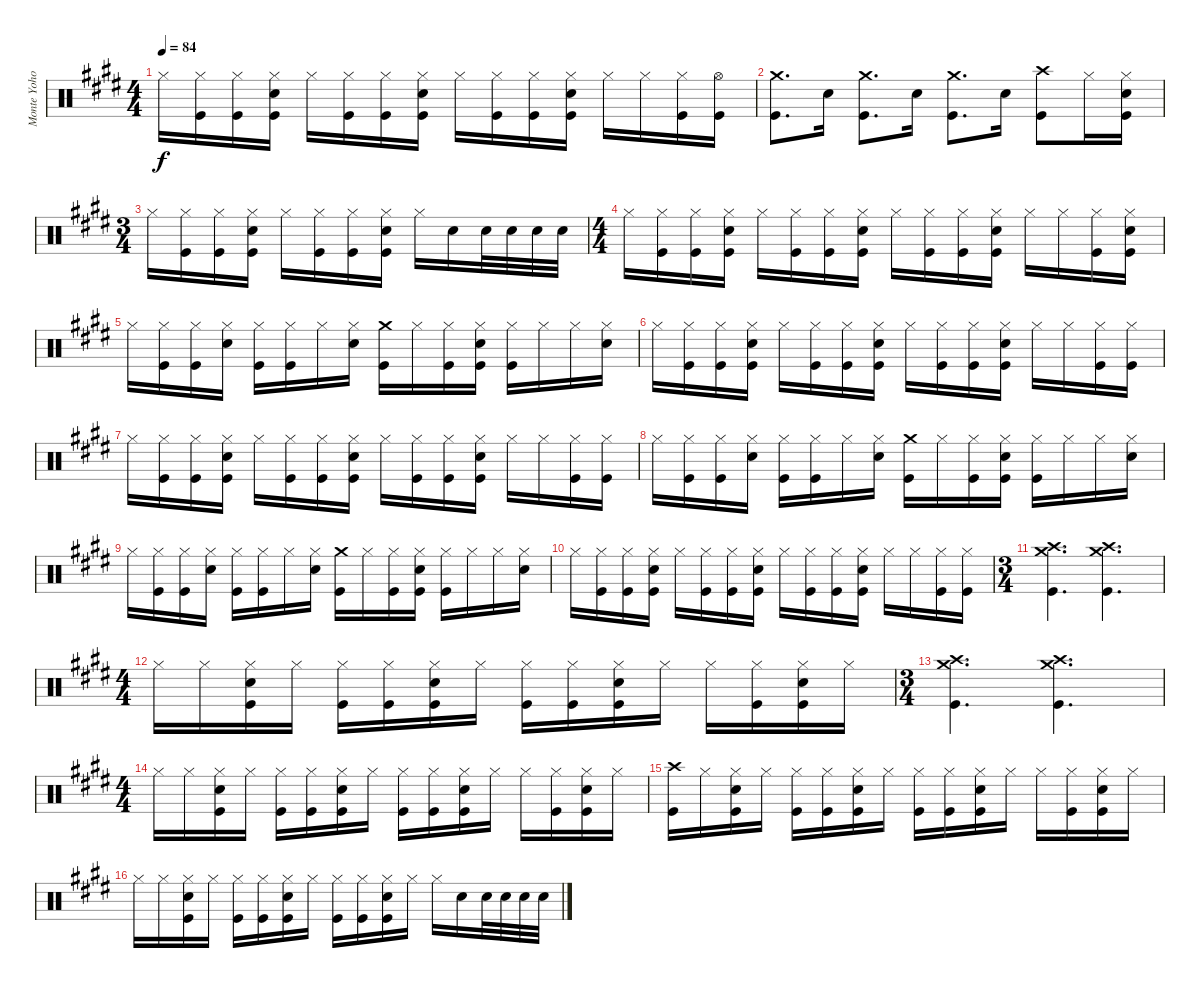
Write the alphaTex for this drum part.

\track ("Monte Yoho Drums" "Monte Yoho") {instrument percussion}
\staff {score}
\articulation defaults
\ts (4 4)
\tempo 84
\clef neutral
\ks e "Hi-Hat (closed)".16{dy f}
("Hi-Hat (closed)" "Kick (hit)").16 ("Hi-Hat (closed)" "Kick (hit)").16 ("Hi-Hat (closed)" "Snare (hit) 2" "Kick (hit)").16 "Hi-Hat (closed)".16 ("Hi-Hat (closed)" "Kick (hit)").16 ("Hi-Hat (closed)" "Kick (hit)").16 ("Hi-Hat (closed)" "Snare (hit) 2" "Kick (hit)").16 "Hi-Hat (closed)".16 ("Hi-Hat (closed)" "Kick (hit)").16 ("Hi-Hat (closed)" "Kick (hit)").16 ("Hi-Hat (closed)" "Snare (hit) 2" "Kick (hit)").16 "Hi-Hat (closed)".16 "Hi-Hat (closed)".16 ("Hi-Hat (closed)" "Kick (hit)").16 ("Hi-Hat (open)" "Kick (hit)").16 |
("Crash medium (hit)" "Kick (hit)").8{d} "Snare (hit) 2".16 ("Crash medium (hit)" "Kick (hit)").8{d} "Snare (hit) 2".16 ("Crash medium (hit)" "Kick (hit)").8{d} "Snare (hit) 2".16 ("Crash high (hit)" "Kick (hit)").8 "Hi-Hat (closed)".16 ("Hi-Hat (closed)" "Snare (hit) 2" "Kick (hit)").16 |
\ts (3 4)
"Hi-Hat (closed)".16 ("Hi-Hat (closed)" "Kick (hit)").16 ("Hi-Hat (closed)" "Kick (hit)").16 ("Hi-Hat (closed)" "Snare (hit) 2" "Kick (hit)").16 "Hi-Hat (closed)".16 ("Hi-Hat (closed)" "Kick (hit)").16 ("Hi-Hat (closed)" "Kick (hit)").16 ("Hi-Hat (closed)" "Snare (hit) 2" "Kick (hit)").16 "Hi-Hat (closed)".16 "Snare (hit) 2".16 "Snare (hit) 2".32 "Snare (hit) 2".32 "Snare (hit) 2".32 "Snare (hit) 2".32 |
\ts (4 4)
"Hi-Hat (closed)".16 ("Hi-Hat (closed)" "Kick (hit)").16 ("Hi-Hat (closed)" "Kick (hit)").16 ("Hi-Hat (closed)" "Snare (hit) 2" "Kick (hit)").16 "Hi-Hat (closed)".16 ("Hi-Hat (closed)" "Kick (hit)").16 ("Hi-Hat (closed)" "Kick (hit)").16 ("Hi-Hat (closed)" "Snare (hit) 2" "Kick (hit)").16 "Hi-Hat (closed)".16 ("Hi-Hat (closed)" "Kick (hit)").16 ("Hi-Hat (closed)" "Kick (hit)").16 ("Hi-Hat (closed)" "Snare (hit) 2" "Kick (hit)").16 "Hi-Hat (closed)".16 "Hi-Hat (closed)".16 ("Hi-Hat (closed)" "Kick (hit)").16 ("Hi-Hat (closed)" "Snare (hit) 2" "Kick (hit)").16 |
"Hi-Hat (closed)".16 ("Hi-Hat (closed)" "Kick (hit)").16 ("Hi-Hat (closed)" "Kick (hit)").16 ("Hi-Hat (closed)" "Snare (hit) 2").16 ("Hi-Hat (closed)" "Kick (hit)").16 ("Hi-Hat (closed)" "Kick (hit)").16 "Hi-Hat (closed)".16 ("Hi-Hat (closed)" "Snare (hit) 2").16 ("Crash medium (hit)" "Kick (hit)").16 "Hi-Hat (closed)".16 ("Hi-Hat (closed)" "Kick (hit)").16 ("Hi-Hat (closed)" "Snare (hit) 2" "Kick (hit)").16 ("Hi-Hat (closed)" "Kick (hit)").16 "Hi-Hat (closed)".16 "Hi-Hat (closed)".16 ("Hi-Hat (closed)" "Snare (hit) 2").16 |
"Hi-Hat (closed)".16 ("Hi-Hat (closed)" "Kick (hit)").16 ("Hi-Hat (closed)" "Kick (hit)").16 ("Hi-Hat (closed)" "Snare (hit) 2" "Kick (hit)").16 "Hi-Hat (closed)".16 ("Hi-Hat (closed)" "Kick (hit)").16 ("Hi-Hat (closed)" "Kick (hit)").16 ("Hi-Hat (closed)" "Snare (hit) 2" "Kick (hit)").16 "Hi-Hat (closed)".16 ("Hi-Hat (closed)" "Kick (hit)").16 ("Hi-Hat (closed)" "Kick (hit)").16 ("Hi-Hat (closed)" "Snare (hit) 2" "Kick (hit)").16 "Hi-Hat (closed)".16 "Hi-Hat (closed)".16 ("Hi-Hat (closed)" "Kick (hit)").16 ("Hi-Hat (closed)" "Kick (hit)").16 |
"Hi-Hat (closed)".16 ("Hi-Hat (closed)" "Kick (hit)").16 ("Hi-Hat (closed)" "Kick (hit)").16 ("Hi-Hat (closed)" "Snare (hit) 2" "Kick (hit)").16 "Hi-Hat (closed)".16 ("Hi-Hat (closed)" "Kick (hit)").16 ("Hi-Hat (closed)" "Kick (hit)").16 ("Hi-Hat (closed)" "Snare (hit) 2" "Kick (hit)").16 "Hi-Hat (closed)".16 ("Hi-Hat (closed)" "Kick (hit)").16 ("Hi-Hat (closed)" "Kick (hit)").16 ("Hi-Hat (closed)" "Snare (hit) 2" "Kick (hit)").16 "Hi-Hat (closed)".16 "Hi-Hat (closed)".16 ("Hi-Hat (closed)" "Kick (hit)").16 ("Hi-Hat (closed)" "Kick (hit)").16 |
"Hi-Hat (closed)".16 ("Hi-Hat (closed)" "Kick (hit)").16 ("Hi-Hat (closed)" "Kick (hit)").16 ("Hi-Hat (closed)" "Snare (hit) 2").16 ("Hi-Hat (closed)" "Kick (hit)").16 ("Hi-Hat (closed)" "Kick (hit)").16 "Hi-Hat (closed)".16 ("Hi-Hat (closed)" "Snare (hit) 2").16 ("Crash medium (hit)" "Kick (hit)").16 "Hi-Hat (closed)".16 ("Hi-Hat (closed)" "Kick (hit)").16 ("Hi-Hat (closed)" "Snare (hit) 2" "Kick (hit)").16 ("Hi-Hat (closed)" "Kick (hit)").16 "Hi-Hat (closed)".16 "Hi-Hat (closed)".16 ("Hi-Hat (closed)" "Snare (hit) 2").16 |
"Hi-Hat (closed)".16 ("Hi-Hat (closed)" "Kick (hit)").16 ("Hi-Hat (closed)" "Kick (hit)").16 ("Hi-Hat (closed)" "Snare (hit) 2").16 ("Hi-Hat (closed)" "Kick (hit)").16 ("Hi-Hat (closed)" "Kick (hit)").16 "Hi-Hat (closed)".16 ("Hi-Hat (closed)" "Snare (hit) 2").16 ("Crash medium (hit)" "Kick (hit)").16 "Hi-Hat (closed)".16 ("Hi-Hat (closed)" "Kick (hit)").16 ("Hi-Hat (closed)" "Snare (hit) 2" "Kick (hit)").16 ("Hi-Hat (closed)" "Kick (hit)").16 "Hi-Hat (closed)".16 "Hi-Hat (closed)".16 ("Hi-Hat (closed)" "Snare (hit) 2").16 |
"Hi-Hat (closed)".16 ("Hi-Hat (closed)" "Kick (hit)").16 ("Hi-Hat (closed)" "Kick (hit)").16 ("Hi-Hat (closed)" "Snare (hit) 2" "Kick (hit)").16 "Hi-Hat (closed)".16 ("Hi-Hat (closed)" "Kick (hit)").16 ("Hi-Hat (closed)" "Kick (hit)").16 ("Hi-Hat (closed)" "Snare (hit) 2" "Kick (hit)").16 "Hi-Hat (closed)".16 ("Hi-Hat (closed)" "Kick (hit)").16 ("Hi-Hat (closed)" "Kick (hit)").16 ("Hi-Hat (closed)" "Snare (hit) 2" "Kick (hit)").16 "Hi-Hat (closed)".16 "Hi-Hat (closed)".16 ("Hi-Hat (closed)" "Kick (hit)").16 ("Hi-Hat (closed)" "Kick (hit)").16 |
\ts (3 4)
("Crash high (hit)" "Crash medium (hit)" "Kick (hit)").4{d} ("Crash high (hit)" "Crash medium (hit)" "Kick (hit)").4{d} |
\ts (4 4)
"Hi-Hat (closed)".16 "Hi-Hat (closed)".16 ("Hi-Hat (closed)" "Snare (hit) 2" "Kick (hit)").16 "Hi-Hat (closed)".16 ("Hi-Hat (closed)" "Kick (hit)").16 ("Hi-Hat (closed)" "Kick (hit)").16 ("Hi-Hat (closed)" "Snare (hit) 2" "Kick (hit)").16 "Hi-Hat (closed)".16 ("Hi-Hat (closed)" "Kick (hit)").16 ("Hi-Hat (closed)" "Kick (hit)").16 ("Hi-Hat (closed)" "Snare (hit) 2" "Kick (hit)").16 "Hi-Hat (closed)".16 "Hi-Hat (closed)".16 ("Hi-Hat (closed)" "Kick (hit)").16 ("Hi-Hat (closed)" "Snare (hit) 2" "Kick (hit)").16 "Hi-Hat (closed)".16 |
\ts (3 4)
("Crash high (hit)" "Crash medium (hit)" "Kick (hit)").4{d} ("Crash high (hit)" "Crash medium (hit)" "Kick (hit)").4{d} |
\ts (4 4)
"Hi-Hat (closed)".16 "Hi-Hat (closed)".16 ("Hi-Hat (closed)" "Snare (hit) 2" "Kick (hit)").16 "Hi-Hat (closed)".16 ("Hi-Hat (closed)" "Kick (hit)").16 ("Hi-Hat (closed)" "Kick (hit)").16 ("Hi-Hat (closed)" "Snare (hit) 2" "Kick (hit)").16 "Hi-Hat (closed)".16 ("Hi-Hat (closed)" "Kick (hit)").16 ("Hi-Hat (closed)" "Kick (hit)").16 ("Hi-Hat (closed)" "Snare (hit) 2" "Kick (hit)").16 "Hi-Hat (closed)".16 "Hi-Hat (closed)".16 ("Hi-Hat (closed)" "Kick (hit)").16 ("Hi-Hat (closed)" "Snare (hit) 2" "Kick (hit)").16 "Hi-Hat (closed)".16 |
("Crash high (hit)" "Kick (hit)").16 "Hi-Hat (closed)".16 ("Hi-Hat (closed)" "Snare (hit) 2" "Kick (hit)").16 "Hi-Hat (closed)".16 ("Hi-Hat (closed)" "Kick (hit)").16 ("Hi-Hat (closed)" "Kick (hit)").16 ("Hi-Hat (closed)" "Snare (hit) 2" "Kick (hit)").16 "Hi-Hat (closed)".16 ("Hi-Hat (closed)" "Kick (hit)").16 ("Hi-Hat (closed)" "Kick (hit)").16 ("Hi-Hat (closed)" "Snare (hit) 2" "Kick (hit)").16 "Hi-Hat (closed)".16 "Hi-Hat (closed)".16 ("Hi-Hat (closed)" "Kick (hit)").16 ("Hi-Hat (closed)" "Snare (hit) 2" "Kick (hit)").16 "Hi-Hat (closed)".16 |
"Hi-Hat (closed)".16 "Hi-Hat (closed)".16 ("Hi-Hat (closed)" "Snare (hit) 2" "Kick (hit)").16 "Hi-Hat (closed)".16 ("Hi-Hat (closed)" "Kick (hit)").16 ("Hi-Hat (closed)" "Kick (hit)").16 ("Hi-Hat (closed)" "Snare (hit) 2" "Kick (hit)").16 "Hi-Hat (closed)".16 ("Hi-Hat (closed)" "Kick (hit)").16 ("Hi-Hat (closed)" "Kick (hit)").16 ("Hi-Hat (closed)" "Snare (hit) 2" "Kick (hit)").16 "Hi-Hat (closed)".16 "Hi-Hat (closed)".16 "Snare (hit) 2".16 "Snare (hit) 2".32 "Snare (hit) 2".32 "Snare (hit) 2".32 "Snare (hit) 2".32
